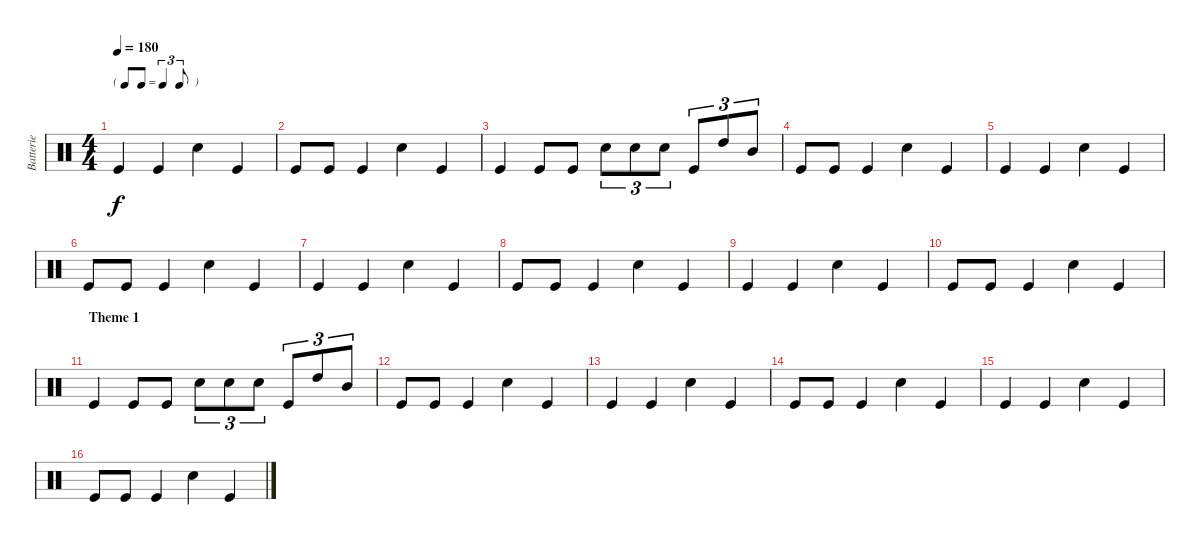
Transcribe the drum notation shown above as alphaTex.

\track ("Batterie" "Batterie") {instrument percussion}
\staff {score}
\articulation defaults
\ts (4 4)
\tf triplet8th
\tempo 180
\clef neutral
\ks c "Kick (hit)".4{dy f} "Kick (hit)".4 "Electric Snare (hit)".4 "Kick (hit)".4
|
"Kick (hit)".8 "Kick (hit)".8 "Kick (hit)".4 "Electric Snare (hit)".4 "Kick (hit)".4 |
"Kick (hit)".4 "Kick (hit)".8 "Kick (hit)".8 "Electric Snare (hit)".8{tu (3 2)} "Electric Snare (hit)".8{tu (3 2)} "Electric Snare (hit)".8{tu (3 2)} "Kick (hit)".8{tu (3 2)} "High Tom (hit)".8{tu (3 2)} "Mid Tom (hit)".8{tu (3 2)} |
"Kick (hit)".8 "Kick (hit)".8 "Kick (hit)".4 "Electric Snare (hit)".4 "Kick (hit)".4 |
"Kick (hit)".4 "Kick (hit)".4 "Electric Snare (hit)".4 "Kick (hit)".4 |
"Kick (hit)".8 "Kick (hit)".8 "Kick (hit)".4 "Electric Snare (hit)".4 "Kick (hit)".4 |
"Kick (hit)".4 "Kick (hit)".4 "Electric Snare (hit)".4 "Kick (hit)".4 |
"Kick (hit)".8 "Kick (hit)".8 "Kick (hit)".4 "Electric Snare (hit)".4 "Kick (hit)".4 |
"Kick (hit)".4 "Kick (hit)".4 "Electric Snare (hit)".4 "Kick (hit)".4 |
"Kick (hit)".8 "Kick (hit)".8 "Kick (hit)".4 "Electric Snare (hit)".4 "Kick (hit)".4 |
\section ("" "Theme 1")
"Kick (hit)".4 "Kick (hit)".8 "Kick (hit)".8 "Electric Snare (hit)".8{tu (3 2)} "Electric Snare (hit)".8{tu (3 2)} "Electric Snare (hit)".8{tu (3 2)} "Kick (hit)".8{tu (3 2)} "High Tom (hit)".8{tu (3 2)} "Mid Tom (hit)".8{tu (3 2)} |
"Kick (hit)".8 "Kick (hit)".8 "Kick (hit)".4 "Electric Snare (hit)".4 "Kick (hit)".4 |
"Kick (hit)".4 "Kick (hit)".4 "Electric Snare (hit)".4 "Kick (hit)".4 |
"Kick (hit)".8 "Kick (hit)".8 "Kick (hit)".4 "Electric Snare (hit)".4 "Kick (hit)".4 |
"Kick (hit)".4 "Kick (hit)".4 "Electric Snare (hit)".4 "Kick (hit)".4 |
"Kick (hit)".8 "Kick (hit)".8 "Kick (hit)".4 "Electric Snare (hit)".4 "Kick (hit)".4
